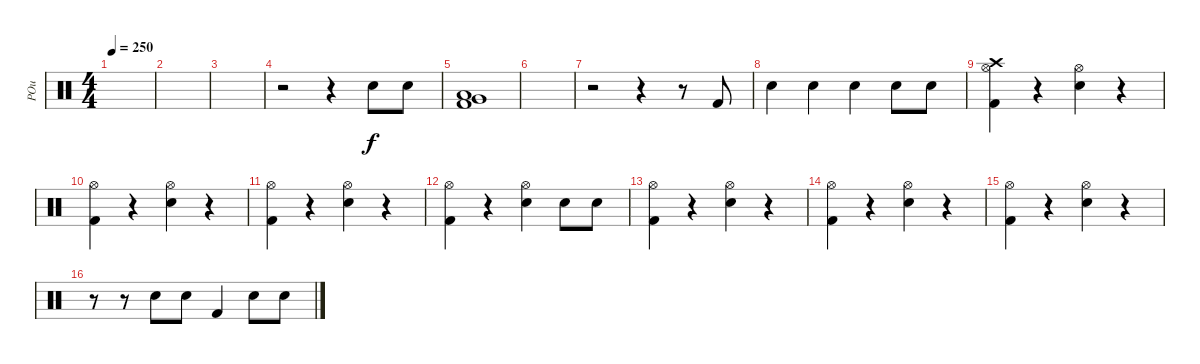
\track ("POu" "POu") {instrument percussion}
\staff {score}
\articulation defaults
\ts (4 4)
\tempo 250
\clef neutral
\ks c
|
|
|
r.2 r.4 "Electric Snare (hit)".8 "Electric Snare (hit)".8 |
("Low Floor Tom (hit)" "Very Low Tom (hit)" "Kick (hit) 2").1 |
|
r.2 r.4 r.8 "Kick (hit) 2".8 |
"Electric Snare (hit)".4 "Electric Snare (hit)".4 "Electric Snare (hit)".4 "Electric Snare (hit)".8 "Electric Snare (hit)".8 |
("Kick (hit) 2" "Hi-Hat (open)" "Crash high (hit)").4 r.4 ("Electric Snare (hit)" "Hi-Hat (open)").4 r.4 |
("Kick (hit) 2" "Hi-Hat (open)").4 r.4 ("Electric Snare (hit)" "Hi-Hat (open)").4 r.4 |
("Kick (hit) 2" "Hi-Hat (open)").4 r.4 ("Electric Snare (hit)" "Hi-Hat (open)").4 r.4 |
("Kick (hit) 2" "Hi-Hat (open)").4 r.4 ("Electric Snare (hit)" "Hi-Hat (open)").4 "Electric Snare (hit)".8 "Electric Snare (hit)".8 |
("Kick (hit) 2" "Hi-Hat (open)").4 r.4 ("Electric Snare (hit)" "Hi-Hat (open)").4 r.4 |
("Kick (hit) 2" "Hi-Hat (open)").4 r.4 ("Electric Snare (hit)" "Hi-Hat (open)").4 r.4 |
("Kick (hit) 2" "Hi-Hat (open)").4 r.4 ("Electric Snare (hit)" "Hi-Hat (open)").4 r.4 |
r.8 r.8 "Electric Snare (hit)".8 "Electric Snare (hit)".8 "Kick (hit) 2".4 "Electric Snare (hit)".8 "Electric Snare (hit)".8
